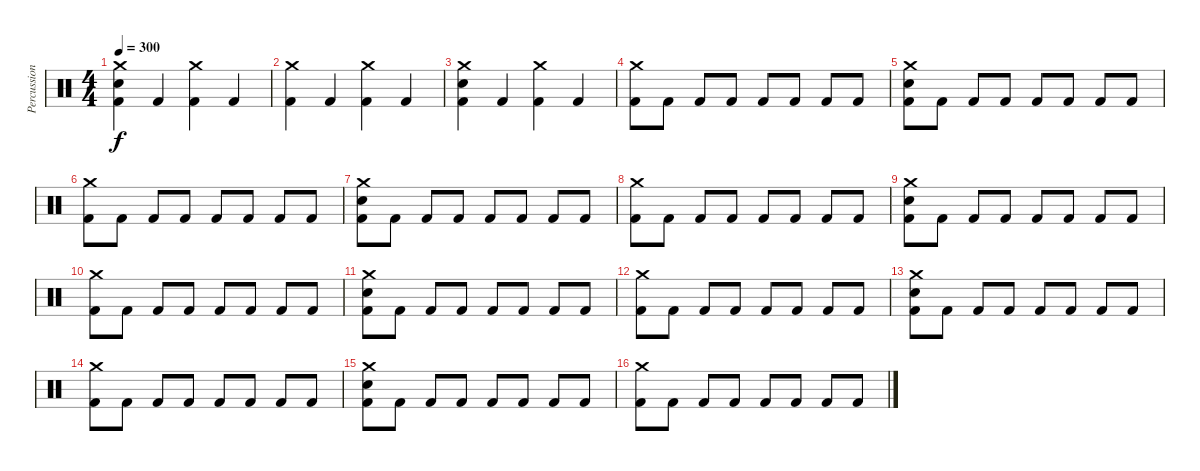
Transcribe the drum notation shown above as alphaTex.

\track ("Percussion" "Percussion") {instrument percussion}
\staff {score}
\articulation defaults
\ts (4 4)
\tempo 300
\clef neutral
\ks c
("Snare (hit) 2" "Kick (hit) 2" "Crash medium (hit)").4{dy f} "Kick (hit) 2".4 ("Kick (hit) 2" "Crash medium (hit)").4 "Kick (hit) 2".4 |
("Kick (hit) 2" "Crash medium (hit)").4 "Kick (hit) 2".4 ("Kick (hit) 2" "Crash medium (hit)").4 "Kick (hit) 2".4 |
("Snare (hit) 2" "Kick (hit) 2" "Crash medium (hit)").4 "Kick (hit) 2".4 ("Kick (hit) 2" "Crash medium (hit)").4 "Kick (hit) 2".4 |
("Kick (hit) 2" "Crash medium (hit)").8 "Kick (hit) 2".8 "Kick (hit) 2".8 "Kick (hit) 2".8 "Kick (hit) 2".8 "Kick (hit) 2".8 "Kick (hit) 2".8 "Kick (hit) 2".8 |
("Snare (hit) 2" "Kick (hit) 2" "Crash medium (hit)").8 "Kick (hit) 2".8 "Kick (hit) 2".8 "Kick (hit) 2".8 "Kick (hit) 2".8 "Kick (hit) 2".8 "Kick (hit) 2".8 "Kick (hit) 2".8 |
("Kick (hit) 2" "Crash medium (hit)").8 "Kick (hit) 2".8 "Kick (hit) 2".8 "Kick (hit) 2".8 "Kick (hit) 2".8 "Kick (hit) 2".8 "Kick (hit) 2".8 "Kick (hit) 2".8 |
("Snare (hit) 2" "Kick (hit) 2" "Crash medium (hit)").8 "Kick (hit) 2".8 "Kick (hit) 2".8 "Kick (hit) 2".8 "Kick (hit) 2".8 "Kick (hit) 2".8 "Kick (hit) 2".8 "Kick (hit) 2".8 |
("Kick (hit) 2" "Crash medium (hit)").8 "Kick (hit) 2".8 "Kick (hit) 2".8 "Kick (hit) 2".8 "Kick (hit) 2".8 "Kick (hit) 2".8 "Kick (hit) 2".8 "Kick (hit) 2".8 |
("Snare (hit) 2" "Kick (hit) 2" "Crash medium (hit)").8 "Kick (hit) 2".8 "Kick (hit) 2".8 "Kick (hit) 2".8 "Kick (hit) 2".8 "Kick (hit) 2".8 "Kick (hit) 2".8 "Kick (hit) 2".8 |
("Kick (hit) 2" "Crash medium (hit)").8 "Kick (hit) 2".8 "Kick (hit) 2".8 "Kick (hit) 2".8 "Kick (hit) 2".8 "Kick (hit) 2".8 "Kick (hit) 2".8 "Kick (hit) 2".8 |
("Snare (hit) 2" "Kick (hit) 2" "Crash medium (hit)").8 "Kick (hit) 2".8 "Kick (hit) 2".8 "Kick (hit) 2".8 "Kick (hit) 2".8 "Kick (hit) 2".8 "Kick (hit) 2".8 "Kick (hit) 2".8 |
("Kick (hit) 2" "Crash medium (hit)").8 "Kick (hit) 2".8 "Kick (hit) 2".8 "Kick (hit) 2".8 "Kick (hit) 2".8 "Kick (hit) 2".8 "Kick (hit) 2".8 "Kick (hit) 2".8 |
("Snare (hit) 2" "Kick (hit) 2" "Crash medium (hit)").8 "Kick (hit) 2".8 "Kick (hit) 2".8 "Kick (hit) 2".8 "Kick (hit) 2".8 "Kick (hit) 2".8 "Kick (hit) 2".8 "Kick (hit) 2".8 |
("Kick (hit) 2" "Crash medium (hit)").8 "Kick (hit) 2".8 "Kick (hit) 2".8 "Kick (hit) 2".8 "Kick (hit) 2".8 "Kick (hit) 2".8 "Kick (hit) 2".8 "Kick (hit) 2".8 |
("Snare (hit) 2" "Kick (hit) 2" "Crash medium (hit)").8 "Kick (hit) 2".8 "Kick (hit) 2".8 "Kick (hit) 2".8 "Kick (hit) 2".8 "Kick (hit) 2".8 "Kick (hit) 2".8 "Kick (hit) 2".8 |
("Kick (hit) 2" "Crash medium (hit)").8 "Kick (hit) 2".8 "Kick (hit) 2".8 "Kick (hit) 2".8 "Kick (hit) 2".8 "Kick (hit) 2".8 "Kick (hit) 2".8 "Kick (hit) 2".8
